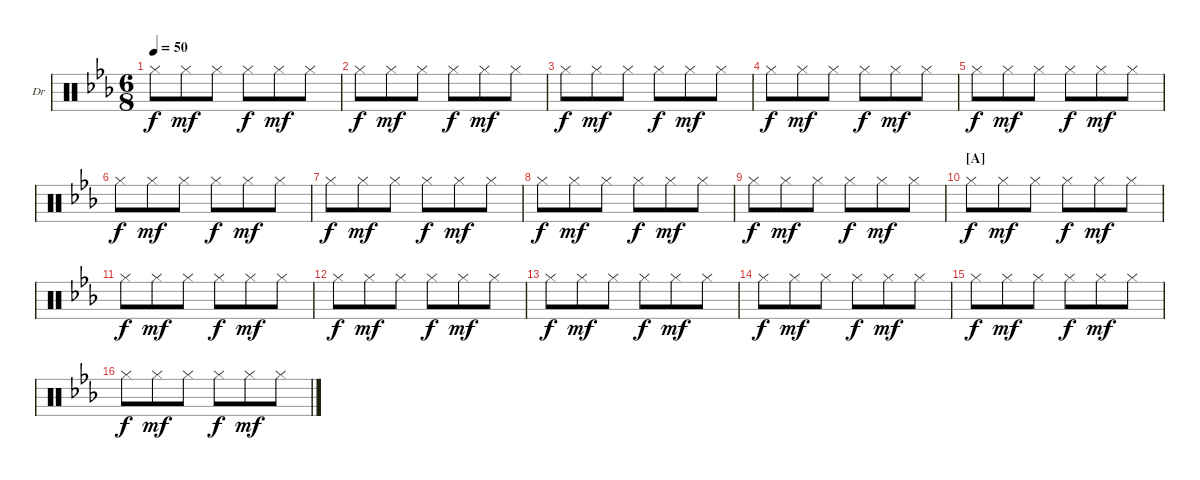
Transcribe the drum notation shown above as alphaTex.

\defaultSystemsLayout 4
\bracketExtendMode nobrackets
\firstSystemTrackNameOrientation horizontal
\otherSystemsTrackNameOrientation horizontal
\chordDiagramsInScore
\track ("Drums" "Dr") {instrument percussion}
\staff {score}
\articulation defaults
\ts (6 8)
\tempo 50
\clef neutral
\ks eb "Hi-Hat (closed)".8{dy f} "Hi-Hat (closed)".8{dy mf} "Hi-Hat (closed)".8 "Hi-Hat (closed)".8{dy f} "Hi-Hat (closed)".8{dy mf} "Hi-Hat (closed)".8
|
"Hi-Hat (closed)".8{dy f} "Hi-Hat (closed)".8{dy mf} "Hi-Hat (closed)".8 "Hi-Hat (closed)".8{dy f} "Hi-Hat (closed)".8{dy mf} "Hi-Hat (closed)".8 |
"Hi-Hat (closed)".8{dy f} "Hi-Hat (closed)".8{dy mf} "Hi-Hat (closed)".8 "Hi-Hat (closed)".8{dy f} "Hi-Hat (closed)".8{dy mf} "Hi-Hat (closed)".8 |
"Hi-Hat (closed)".8{dy f} "Hi-Hat (closed)".8{dy mf} "Hi-Hat (closed)".8 "Hi-Hat (closed)".8{dy f} "Hi-Hat (closed)".8{dy mf} "Hi-Hat (closed)".8 |
"Hi-Hat (closed)".8{dy f} "Hi-Hat (closed)".8{dy mf} "Hi-Hat (closed)".8 "Hi-Hat (closed)".8{dy f} "Hi-Hat (closed)".8{dy mf} "Hi-Hat (closed)".8 |
"Hi-Hat (closed)".8{dy f} "Hi-Hat (closed)".8{dy mf} "Hi-Hat (closed)".8 "Hi-Hat (closed)".8{dy f} "Hi-Hat (closed)".8{dy mf} "Hi-Hat (closed)".8 |
"Hi-Hat (closed)".8{dy f} "Hi-Hat (closed)".8{dy mf} "Hi-Hat (closed)".8 "Hi-Hat (closed)".8{dy f} "Hi-Hat (closed)".8{dy mf} "Hi-Hat (closed)".8 |
"Hi-Hat (closed)".8{dy f} "Hi-Hat (closed)".8{dy mf} "Hi-Hat (closed)".8 "Hi-Hat (closed)".8{dy f} "Hi-Hat (closed)".8{dy mf} "Hi-Hat (closed)".8 |
"Hi-Hat (closed)".8{dy f} "Hi-Hat (closed)".8{dy mf} "Hi-Hat (closed)".8 "Hi-Hat (closed)".8{dy f} "Hi-Hat (closed)".8{dy mf} "Hi-Hat (closed)".8 |
\section ("A" "")
"Hi-Hat (closed)".8{dy f} "Hi-Hat (closed)".8{dy mf} "Hi-Hat (closed)".8 "Hi-Hat (closed)".8{dy f} "Hi-Hat (closed)".8{dy mf} "Hi-Hat (closed)".8 |
"Hi-Hat (closed)".8{dy f} "Hi-Hat (closed)".8{dy mf} "Hi-Hat (closed)".8 "Hi-Hat (closed)".8{dy f} "Hi-Hat (closed)".8{dy mf} "Hi-Hat (closed)".8 |
"Hi-Hat (closed)".8{dy f} "Hi-Hat (closed)".8{dy mf} "Hi-Hat (closed)".8 "Hi-Hat (closed)".8{dy f} "Hi-Hat (closed)".8{dy mf} "Hi-Hat (closed)".8 |
"Hi-Hat (closed)".8{dy f} "Hi-Hat (closed)".8{dy mf} "Hi-Hat (closed)".8 "Hi-Hat (closed)".8{dy f} "Hi-Hat (closed)".8{dy mf} "Hi-Hat (closed)".8 |
"Hi-Hat (closed)".8{dy f} "Hi-Hat (closed)".8{dy mf} "Hi-Hat (closed)".8 "Hi-Hat (closed)".8{dy f} "Hi-Hat (closed)".8{dy mf} "Hi-Hat (closed)".8 |
"Hi-Hat (closed)".8{dy f} "Hi-Hat (closed)".8{dy mf} "Hi-Hat (closed)".8 "Hi-Hat (closed)".8{dy f} "Hi-Hat (closed)".8{dy mf} "Hi-Hat (closed)".8 |
"Hi-Hat (closed)".8{dy f} "Hi-Hat (closed)".8{dy mf} "Hi-Hat (closed)".8 "Hi-Hat (closed)".8{dy f} "Hi-Hat (closed)".8{dy mf} "Hi-Hat (closed)".8
